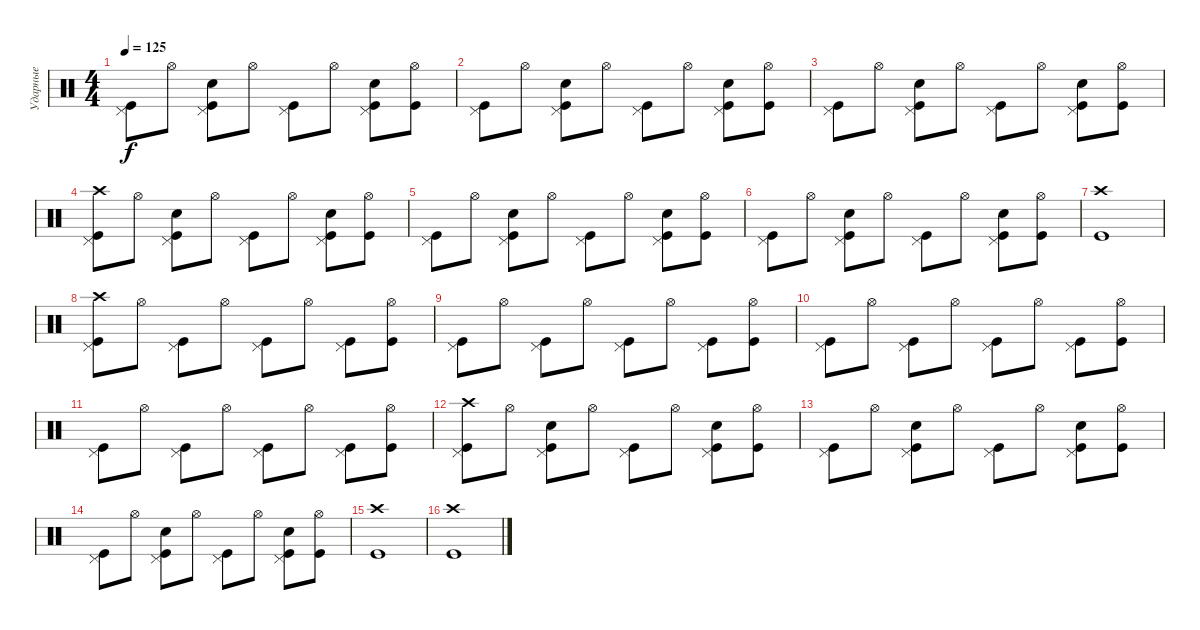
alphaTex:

\track ("Ударные" "Ударные") {instrument percussion}
\staff {score}
\articulation defaults
\ts (4 4)
\tempo 125
\clef neutral
\ks c
("Kick (hit)" "Pedal Hi-Hat (hit)").8{dy f} "Hi-Hat (open)".8 ("Kick (hit)" "Pedal Hi-Hat (hit)" "Hand Clap (hit)").8 "Hi-Hat (open)".8 ("Kick (hit)" "Pedal Hi-Hat (hit)").8 "Hi-Hat (open)".8 ("Kick (hit)" "Pedal Hi-Hat (hit)" "Hand Clap (hit)").8 ("Kick (hit)" "Hi-Hat (open)").8 |
("Kick (hit)" "Pedal Hi-Hat (hit)").8 "Hi-Hat (open)".8 ("Kick (hit)" "Pedal Hi-Hat (hit)" "Hand Clap (hit)").8 "Hi-Hat (open)".8 ("Kick (hit)" "Pedal Hi-Hat (hit)").8 "Hi-Hat (open)".8 ("Kick (hit)" "Pedal Hi-Hat (hit)" "Hand Clap (hit)").8 ("Kick (hit)" "Hi-Hat (open)").8 |
("Kick (hit)" "Pedal Hi-Hat (hit)").8 "Hi-Hat (open)".8 ("Kick (hit)" "Pedal Hi-Hat (hit)" "Hand Clap (hit)").8 "Hi-Hat (open)".8 ("Kick (hit)" "Pedal Hi-Hat (hit)").8 "Hi-Hat (open)".8 ("Kick (hit)" "Pedal Hi-Hat (hit)" "Hand Clap (hit)").8 ("Kick (hit)" "Hi-Hat (open)").8 |
("Kick (hit)" "Pedal Hi-Hat (hit)" "Crash high (hit)").8 "Hi-Hat (open)".8 ("Kick (hit)" "Pedal Hi-Hat (hit)" "Hand Clap (hit)").8 "Hi-Hat (open)".8 ("Kick (hit)" "Pedal Hi-Hat (hit)").8 "Hi-Hat (open)".8 ("Kick (hit)" "Pedal Hi-Hat (hit)" "Hand Clap (hit)").8 ("Kick (hit)" "Hi-Hat (open)").8 |
("Kick (hit)" "Pedal Hi-Hat (hit)").8 "Hi-Hat (open)".8 ("Kick (hit)" "Pedal Hi-Hat (hit)" "Hand Clap (hit)").8 "Hi-Hat (open)".8 ("Kick (hit)" "Pedal Hi-Hat (hit)").8 "Hi-Hat (open)".8 ("Kick (hit)" "Pedal Hi-Hat (hit)" "Hand Clap (hit)").8 ("Kick (hit)" "Hi-Hat (open)").8 |
("Kick (hit)" "Pedal Hi-Hat (hit)").8 "Hi-Hat (open)".8 ("Kick (hit)" "Pedal Hi-Hat (hit)" "Hand Clap (hit)").8 "Hi-Hat (open)".8 ("Kick (hit)" "Pedal Hi-Hat (hit)").8 "Hi-Hat (open)".8 ("Kick (hit)" "Pedal Hi-Hat (hit)" "Hand Clap (hit)").8 ("Kick (hit)" "Hi-Hat (open)").8 |
("Kick (hit)" "Crash high (hit)").1 |
("Kick (hit)" "Pedal Hi-Hat (hit)" "Crash high (hit)").8 "Hi-Hat (open)".8 ("Kick (hit)" "Pedal Hi-Hat (hit)").8 "Hi-Hat (open)".8 ("Kick (hit)" "Pedal Hi-Hat (hit)").8 "Hi-Hat (open)".8 ("Kick (hit)" "Pedal Hi-Hat (hit)").8 ("Kick (hit)" "Hi-Hat (open)").8 |
("Kick (hit)" "Pedal Hi-Hat (hit)").8 "Hi-Hat (open)".8 ("Kick (hit)" "Pedal Hi-Hat (hit)").8 "Hi-Hat (open)".8 ("Kick (hit)" "Pedal Hi-Hat (hit)").8 "Hi-Hat (open)".8 ("Kick (hit)" "Pedal Hi-Hat (hit)").8 ("Kick (hit)" "Hi-Hat (open)").8 |
("Kick (hit)" "Pedal Hi-Hat (hit)").8 "Hi-Hat (open)".8 ("Kick (hit)" "Pedal Hi-Hat (hit)").8 "Hi-Hat (open)".8 ("Kick (hit)" "Pedal Hi-Hat (hit)").8 "Hi-Hat (open)".8 ("Kick (hit)" "Pedal Hi-Hat (hit)").8 ("Kick (hit)" "Hi-Hat (open)").8 |
("Kick (hit)" "Pedal Hi-Hat (hit)").8 "Hi-Hat (open)".8 ("Kick (hit)" "Pedal Hi-Hat (hit)").8 "Hi-Hat (open)".8 ("Kick (hit)" "Pedal Hi-Hat (hit)").8 "Hi-Hat (open)".8 ("Kick (hit)" "Pedal Hi-Hat (hit)").8 ("Kick (hit)" "Hi-Hat (open)").8 |
("Kick (hit)" "Pedal Hi-Hat (hit)" "Crash high (hit)").8 "Hi-Hat (open)".8 ("Kick (hit)" "Pedal Hi-Hat (hit)" "Hand Clap (hit)").8 "Hi-Hat (open)".8 ("Kick (hit)" "Pedal Hi-Hat (hit)").8 "Hi-Hat (open)".8 ("Kick (hit)" "Pedal Hi-Hat (hit)" "Hand Clap (hit)").8 ("Kick (hit)" "Hi-Hat (open)").8 |
("Kick (hit)" "Pedal Hi-Hat (hit)").8 "Hi-Hat (open)".8 ("Kick (hit)" "Pedal Hi-Hat (hit)" "Hand Clap (hit)").8 "Hi-Hat (open)".8 ("Kick (hit)" "Pedal Hi-Hat (hit)").8 "Hi-Hat (open)".8 ("Kick (hit)" "Pedal Hi-Hat (hit)" "Hand Clap (hit)").8 ("Kick (hit)" "Hi-Hat (open)").8 |
("Kick (hit)" "Pedal Hi-Hat (hit)").8 "Hi-Hat (open)".8 ("Kick (hit)" "Pedal Hi-Hat (hit)" "Hand Clap (hit)").8 "Hi-Hat (open)".8 ("Kick (hit)" "Pedal Hi-Hat (hit)").8 "Hi-Hat (open)".8 ("Kick (hit)" "Pedal Hi-Hat (hit)" "Hand Clap (hit)").8 ("Kick (hit)" "Hi-Hat (open)").8 |
("Kick (hit)" "Crash high (hit)").1 |
("Kick (hit)" "Crash high (hit)").1
